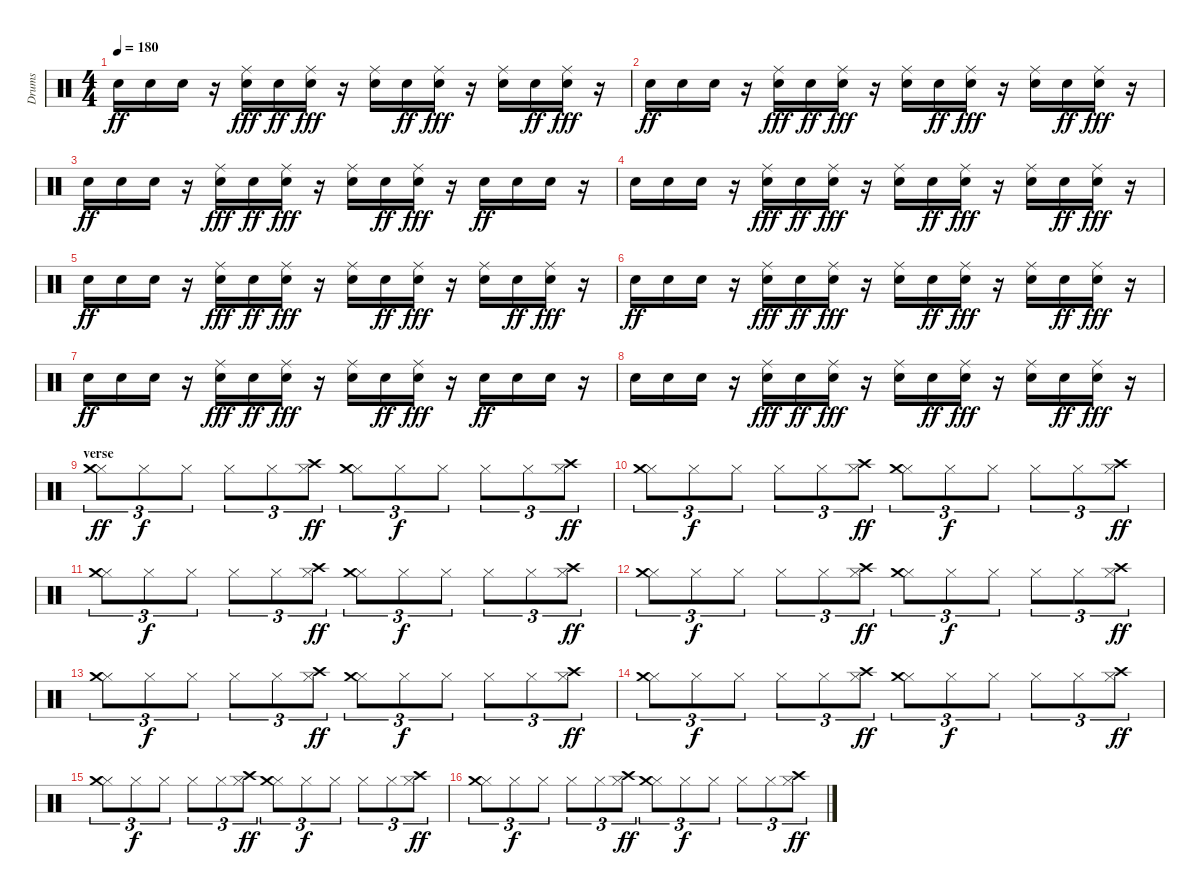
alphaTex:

\track ("Drums" "Drums") {instrument percussion}
\staff {score}
\articulation defaults
\ts (4 4)
\tempo 180
\clef neutral
\ks c "Electric Snare (hit)".16{dy ff} "Electric Snare (hit)".16 "Electric Snare (hit)".16
r.16 ("Electric Snare (hit)" "Ride (middle)").16{dy fff} "Electric Snare (hit)".16{dy ff} ("Electric Snare (hit)" "Ride (middle)").16{dy fff} r.16 ("Electric Snare (hit)" "Ride (middle)").16 "Electric Snare (hit)".16{dy ff} ("Electric Snare (hit)" "Ride (middle)").16{dy fff} r.16 ("Electric Snare (hit)" "Ride (middle)").16 "Electric Snare (hit)".16{dy ff} ("Electric Snare (hit)" "Ride (middle)").16{dy fff} r.16 |
"Electric Snare (hit)".16{dy ff} "Electric Snare (hit)".16 "Electric Snare (hit)".16 r.16 ("Electric Snare (hit)" "Ride (middle)").16{dy fff} "Electric Snare (hit)".16{dy ff} ("Electric Snare (hit)" "Ride (middle)").16{dy fff} r.16 ("Electric Snare (hit)" "Ride (middle)").16 "Electric Snare (hit)".16{dy ff} ("Electric Snare (hit)" "Ride (middle)").16{dy fff} r.16 ("Electric Snare (hit)" "Ride (middle)").16 "Electric Snare (hit)".16{dy ff} ("Electric Snare (hit)" "Ride (middle)").16{dy fff} r.16 |
"Electric Snare (hit)".16{dy ff} "Electric Snare (hit)".16 "Electric Snare (hit)".16 r.16 ("Electric Snare (hit)" "Ride (middle)").16{dy fff} "Electric Snare (hit)".16{dy ff} ("Electric Snare (hit)" "Ride (middle)").16{dy fff} r.16 ("Electric Snare (hit)" "Ride (middle)").16 "Electric Snare (hit)".16{dy ff} ("Electric Snare (hit)" "Ride (middle)").16{dy fff} r.16 "Electric Snare (hit)".16{dy ff} "Electric Snare (hit)".16 "Electric Snare (hit)".16 r.16 |
"Electric Snare (hit)".16 "Electric Snare (hit)".16 "Electric Snare (hit)".16 r.16 ("Electric Snare (hit)" "Ride (middle)").16{dy fff} "Electric Snare (hit)".16{dy ff} ("Electric Snare (hit)" "Ride (middle)").16{dy fff} r.16 ("Electric Snare (hit)" "Ride (middle)").16 "Electric Snare (hit)".16{dy ff} ("Electric Snare (hit)" "Ride (middle)").16{dy fff} r.16 ("Electric Snare (hit)" "Ride (middle)").16 "Electric Snare (hit)".16{dy ff} ("Electric Snare (hit)" "Ride (middle)").16{dy fff} r.16 |
"Electric Snare (hit)".16{dy ff} "Electric Snare (hit)".16 "Electric Snare (hit)".16 r.16 ("Electric Snare (hit)" "Ride (middle)").16{dy fff} "Electric Snare (hit)".16{dy ff} ("Electric Snare (hit)" "Ride (middle)").16{dy fff} r.16 ("Electric Snare (hit)" "Ride (middle)").16 "Electric Snare (hit)".16{dy ff} ("Electric Snare (hit)" "Ride (middle)").16{dy fff} r.16 ("Electric Snare (hit)" "Ride (middle)").16 "Electric Snare (hit)".16{dy ff} ("Electric Snare (hit)" "Ride (middle)").16{dy fff} r.16 |
"Electric Snare (hit)".16{dy ff} "Electric Snare (hit)".16 "Electric Snare (hit)".16 r.16 ("Electric Snare (hit)" "Ride (middle)").16{dy fff} "Electric Snare (hit)".16{dy ff} ("Electric Snare (hit)" "Ride (middle)").16{dy fff} r.16 ("Electric Snare (hit)" "Ride (middle)").16 "Electric Snare (hit)".16{dy ff} ("Electric Snare (hit)" "Ride (middle)").16{dy fff} r.16 ("Electric Snare (hit)" "Ride (middle)").16 "Electric Snare (hit)".16{dy ff} ("Electric Snare (hit)" "Ride (middle)").16{dy fff} r.16 |
"Electric Snare (hit)".16{dy ff} "Electric Snare (hit)".16 "Electric Snare (hit)".16 r.16 ("Electric Snare (hit)" "Ride (middle)").16{dy fff} "Electric Snare (hit)".16{dy ff} ("Electric Snare (hit)" "Ride (middle)").16{dy fff} r.16 ("Electric Snare (hit)" "Ride (middle)").16 "Electric Snare (hit)".16{dy ff} ("Electric Snare (hit)" "Ride (middle)").16{dy fff} r.16 "Electric Snare (hit)".16{dy ff} "Electric Snare (hit)".16 "Electric Snare (hit)".16 r.16 |
"Electric Snare (hit)".16 "Electric Snare (hit)".16 "Electric Snare (hit)".16 r.16 ("Electric Snare (hit)" "Ride (middle)").16{dy fff} "Electric Snare (hit)".16{dy ff} ("Electric Snare (hit)" "Ride (middle)").16{dy fff} r.16 ("Electric Snare (hit)" "Ride (middle)").16 "Electric Snare (hit)".16{dy ff} ("Electric Snare (hit)" "Ride (middle)").16{dy fff} r.16 ("Electric Snare (hit)" "Ride (middle)").16 "Electric Snare (hit)".16{dy ff} ("Electric Snare (hit)" "Ride (middle)").16{dy fff} r.16 |
\section ("" "verse")
("Hi-Hat (closed)" "Crash medium (hit)").8{tu (3 2) dy ff} "Hi-Hat (closed)".8{tu (3 2) dy f} "Hi-Hat (closed)".8{tu (3 2)} "Hi-Hat (closed)".8{tu (3 2)} "Hi-Hat (closed)".8{tu (3 2)} ("Hi-Hat (closed)" "Crash high (hit)").8{tu (3 2) dy ff} ("Hi-Hat (closed)" "Crash medium (hit)").8{tu (3 2)} "Hi-Hat (closed)".8{tu (3 2) dy f} "Hi-Hat (closed)".8{tu (3 2)} "Hi-Hat (closed)".8{tu (3 2)} "Hi-Hat (closed)".8{tu (3 2)} ("Hi-Hat (closed)" "Crash high (hit)").8{tu (3 2) dy ff} |
("Hi-Hat (closed)" "Crash medium (hit)").8{tu (3 2)} "Hi-Hat (closed)".8{tu (3 2) dy f} "Hi-Hat (closed)".8{tu (3 2)} "Hi-Hat (closed)".8{tu (3 2)} "Hi-Hat (closed)".8{tu (3 2)} ("Hi-Hat (closed)" "Crash high (hit)").8{tu (3 2) dy ff} ("Hi-Hat (closed)" "Crash medium (hit)").8{tu (3 2)} "Hi-Hat (closed)".8{tu (3 2) dy f} "Hi-Hat (closed)".8{tu (3 2)} "Hi-Hat (closed)".8{tu (3 2)} "Hi-Hat (closed)".8{tu (3 2)} ("Hi-Hat (closed)" "Crash high (hit)").8{tu (3 2) dy ff} |
("Hi-Hat (closed)" "Crash medium (hit)").8{tu (3 2)} "Hi-Hat (closed)".8{tu (3 2) dy f} "Hi-Hat (closed)".8{tu (3 2)} "Hi-Hat (closed)".8{tu (3 2)} "Hi-Hat (closed)".8{tu (3 2)} ("Hi-Hat (closed)" "Crash high (hit)").8{tu (3 2) dy ff} ("Hi-Hat (closed)" "Crash medium (hit)").8{tu (3 2)} "Hi-Hat (closed)".8{tu (3 2) dy f} "Hi-Hat (closed)".8{tu (3 2)} "Hi-Hat (closed)".8{tu (3 2)} "Hi-Hat (closed)".8{tu (3 2)} ("Hi-Hat (closed)" "Crash high (hit)").8{tu (3 2) dy ff} |
("Hi-Hat (closed)" "Crash medium (hit)").8{tu (3 2)} "Hi-Hat (closed)".8{tu (3 2) dy f} "Hi-Hat (closed)".8{tu (3 2)} "Hi-Hat (closed)".8{tu (3 2)} "Hi-Hat (closed)".8{tu (3 2)} ("Hi-Hat (closed)" "Crash high (hit)").8{tu (3 2) dy ff} ("Hi-Hat (closed)" "Crash medium (hit)").8{tu (3 2)} "Hi-Hat (closed)".8{tu (3 2) dy f} "Hi-Hat (closed)".8{tu (3 2)} "Hi-Hat (closed)".8{tu (3 2)} "Hi-Hat (closed)".8{tu (3 2)} ("Hi-Hat (closed)" "Crash high (hit)").8{tu (3 2) dy ff} |
("Hi-Hat (closed)" "Crash medium (hit)").8{tu (3 2)} "Hi-Hat (closed)".8{tu (3 2) dy f} "Hi-Hat (closed)".8{tu (3 2)} "Hi-Hat (closed)".8{tu (3 2)} "Hi-Hat (closed)".8{tu (3 2)} ("Hi-Hat (closed)" "Crash high (hit)").8{tu (3 2) dy ff} ("Hi-Hat (closed)" "Crash medium (hit)").8{tu (3 2)} "Hi-Hat (closed)".8{tu (3 2) dy f} "Hi-Hat (closed)".8{tu (3 2)} "Hi-Hat (closed)".8{tu (3 2)} "Hi-Hat (closed)".8{tu (3 2)} ("Hi-Hat (closed)" "Crash high (hit)").8{tu (3 2) dy ff} |
("Hi-Hat (closed)" "Crash medium (hit)").8{tu (3 2)} "Hi-Hat (closed)".8{tu (3 2) dy f} "Hi-Hat (closed)".8{tu (3 2)} "Hi-Hat (closed)".8{tu (3 2)} "Hi-Hat (closed)".8{tu (3 2)} ("Hi-Hat (closed)" "Crash high (hit)").8{tu (3 2) dy ff} ("Hi-Hat (closed)" "Crash medium (hit)").8{tu (3 2)} "Hi-Hat (closed)".8{tu (3 2) dy f} "Hi-Hat (closed)".8{tu (3 2)} "Hi-Hat (closed)".8{tu (3 2)} "Hi-Hat (closed)".8{tu (3 2)} ("Hi-Hat (closed)" "Crash high (hit)").8{tu (3 2) dy ff} |
("Hi-Hat (closed)" "Crash medium (hit)").8{tu (3 2)} "Hi-Hat (closed)".8{tu (3 2) dy f} "Hi-Hat (closed)".8{tu (3 2)} "Hi-Hat (closed)".8{tu (3 2)} "Hi-Hat (closed)".8{tu (3 2)} ("Hi-Hat (closed)" "Crash high (hit)").8{tu (3 2) dy ff} ("Hi-Hat (closed)" "Crash medium (hit)").8{tu (3 2)} "Hi-Hat (closed)".8{tu (3 2) dy f} "Hi-Hat (closed)".8{tu (3 2)} "Hi-Hat (closed)".8{tu (3 2)} "Hi-Hat (closed)".8{tu (3 2)} ("Hi-Hat (closed)" "Crash high (hit)").8{tu (3 2) dy ff} |
("Hi-Hat (closed)" "Crash medium (hit)").8{tu (3 2)} "Hi-Hat (closed)".8{tu (3 2) dy f} "Hi-Hat (closed)".8{tu (3 2)} "Hi-Hat (closed)".8{tu (3 2)} "Hi-Hat (closed)".8{tu (3 2)} ("Hi-Hat (closed)" "Crash high (hit)").8{tu (3 2) dy ff} ("Hi-Hat (closed)" "Crash medium (hit)").8{tu (3 2)} "Hi-Hat (closed)".8{tu (3 2) dy f} "Hi-Hat (closed)".8{tu (3 2)} "Hi-Hat (closed)".8{tu (3 2)} "Hi-Hat (closed)".8{tu (3 2)} ("Hi-Hat (closed)" "Crash high (hit)").8{tu (3 2) dy ff}
